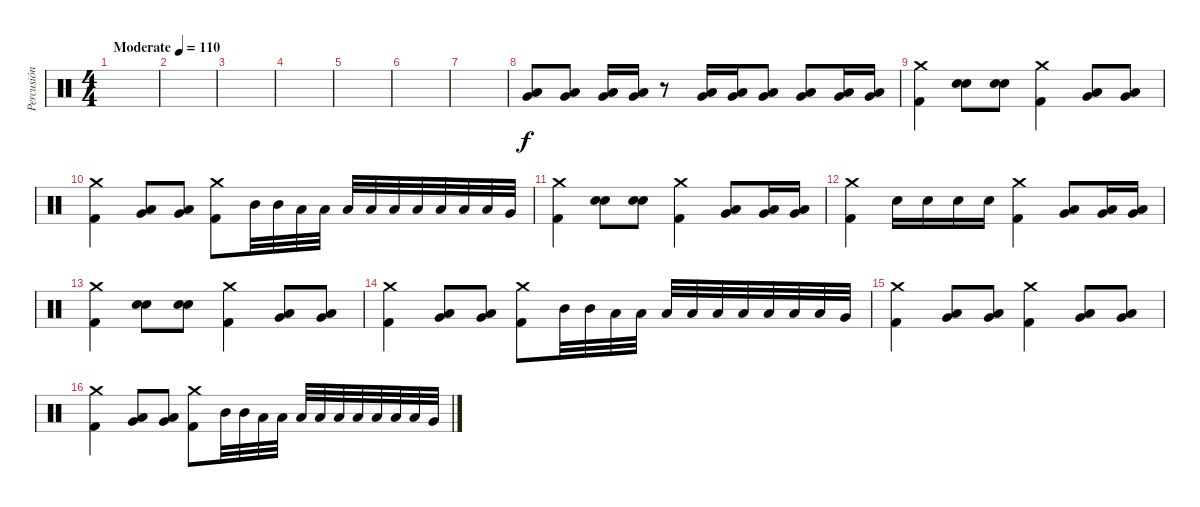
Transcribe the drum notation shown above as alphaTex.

\track ("Percusión" "Percusión") {instrument percussion}
\staff {score}
\articulation defaults
\ts (4 4)
\tempo (110 "Moderate")
\clef neutral
\ks c
|
|
|
|
|
|
|
("Very Low Tom (hit)" "Low Tom (hit)").8 ("Low Tom (hit)" "Very Low Tom (hit)").8 ("Low Tom (hit)" "Very Low Tom (hit)").16 ("Low Tom (hit)" "Very Low Tom (hit)").16 r.8 ("Low Tom (hit)" "Very Low Tom (hit)").16 ("Low Tom (hit)" "Very Low Tom (hit)").16 ("Low Tom (hit)" "Very Low Tom (hit)").8 ("Low Tom (hit)" "Very Low Tom (hit)").8 ("Low Tom (hit)" "Very Low Tom (hit)").16 ("Low Tom (hit)" "Very Low Tom (hit)").16 |
("Crash medium (hit)" "Kick (hit) 2").4 ("Electric Snare (hit)" "Electric Snare (hit)").8 ("Electric Snare (hit)" "Electric Snare (hit)").8 ("Crash medium (hit)" "Kick (hit) 2").4 ("Low Tom (hit)" "Very Low Tom (hit)").8 ("Low Tom (hit)" "Very Low Tom (hit)").8 |
("Crash medium (hit)" "Kick (hit) 2").4 ("Low Tom (hit)" "Very Low Tom (hit)").8 ("Low Tom (hit)" "Very Low Tom (hit)").8 ("Kick (hit) 2" "Crash medium (hit)").8 "Mid Tom (hit)".32 "Mid Tom (hit)".32 "Low Tom (hit)".32 "Low Tom (hit)".32 "Low Tom (hit)".32 "Low Tom (hit)".32 "Low Tom (hit)".32 "Low Tom (hit)".32 "Low Tom (hit)".32 "Low Tom (hit)".32 "Low Tom (hit)".32 "Very Low Tom (hit)".32 |
("Crash medium (hit)" "Kick (hit) 2").4 ("Electric Snare (hit)" "Electric Snare (hit)").8 ("Electric Snare (hit)" "Electric Snare (hit)").8 ("Crash medium (hit)" "Kick (hit) 2").4 ("Low Tom (hit)" "Very Low Tom (hit)").8 ("Low Tom (hit)" "Very Low Tom (hit)").16 ("Low Tom (hit)" "Very Low Tom (hit)").16 |
("Crash medium (hit)" "Kick (hit) 2").4 "Electric Snare (hit)".16 "Electric Snare (hit)".16 "Electric Snare (hit)".16 "Electric Snare (hit)".16 ("Kick (hit) 2" "Crash medium (hit)").4 ("Low Tom (hit)" "Very Low Tom (hit)").8 ("Low Tom (hit)" "Very Low Tom (hit)").16 ("Low Tom (hit)" "Very Low Tom (hit)").16 |
("Crash medium (hit)" "Kick (hit) 2").4 ("Electric Snare (hit)" "Electric Snare (hit)").8 ("Electric Snare (hit)" "Electric Snare (hit)").8 ("Crash medium (hit)" "Kick (hit) 2").4 ("Low Tom (hit)" "Very Low Tom (hit)").8 ("Low Tom (hit)" "Very Low Tom (hit)").8 |
("Crash medium (hit)" "Kick (hit) 2").4 ("Low Tom (hit)" "Very Low Tom (hit)").8 ("Low Tom (hit)" "Very Low Tom (hit)").8 ("Kick (hit) 2" "Crash medium (hit)").8 "Mid Tom (hit)".32 "Mid Tom (hit)".32 "Low Tom (hit)".32 "Low Tom (hit)".32 "Low Tom (hit)".32 "Low Tom (hit)".32 "Low Tom (hit)".32 "Low Tom (hit)".32 "Low Tom (hit)".32 "Low Tom (hit)".32 "Low Tom (hit)".32 "Very Low Tom (hit)".32 |
("Crash medium (hit)" "Kick (hit) 2").4 ("Very Low Tom (hit)" "Low Floor Tom (hit)").8 ("Low Tom (hit)" "Very Low Tom (hit)").8 ("Crash medium (hit)" "Kick (hit) 2").4 ("Low Tom (hit)" "Very Low Tom (hit)").8 ("Low Tom (hit)" "Very Low Tom (hit)").8 |
("Crash medium (hit)" "Kick (hit) 2").4 ("Low Tom (hit)" "Very Low Tom (hit)").8 ("Low Tom (hit)" "Very Low Tom (hit)").8 ("Kick (hit) 2" "Crash medium (hit)").8 "Mid Tom (hit)".32 "Mid Tom (hit)".32 "Low Tom (hit)".32 "Low Tom (hit)".32 "Low Tom (hit)".32 "Low Tom (hit)".32 "Low Tom (hit)".32 "Low Tom (hit)".32 "Low Tom (hit)".32 "Low Tom (hit)".32 "Low Tom (hit)".32 "Very Low Tom (hit)".32
